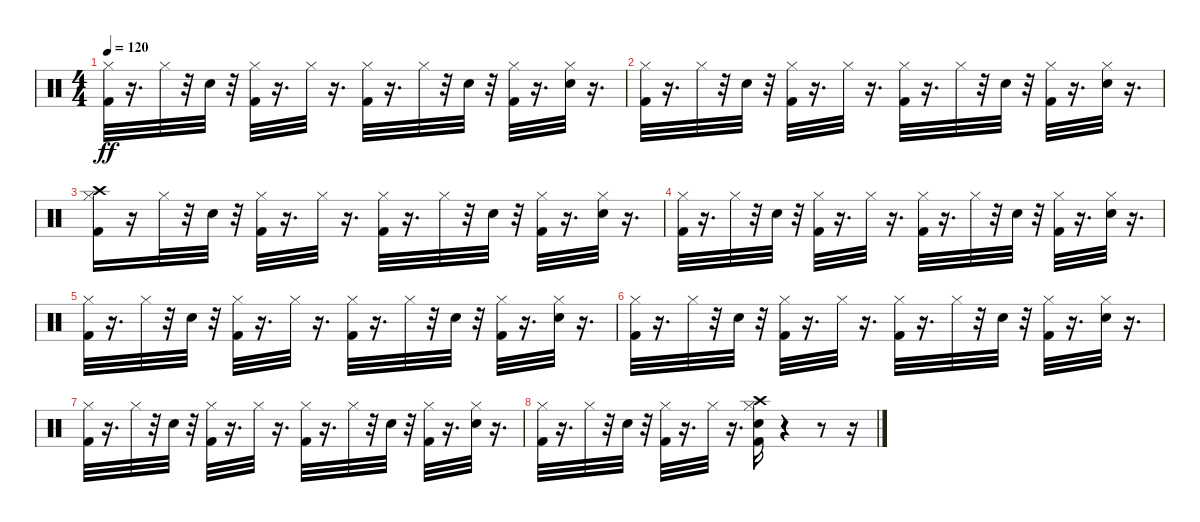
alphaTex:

\track "" {instrument percussion}
\staff {score}
\articulation defaults
\ts (4 4)
\tempo 120
\clef neutral
\ks c
("Kick (hit) 2" "Hi-Hat (closed)").32{dy ff} r.16{d} "Hi-Hat (closed)".32 r.32 "Snare (hit) 2".32 r.32 ("Kick (hit) 2" "Hi-Hat (closed)").32 r.16{d} "Hi-Hat (closed)".32 r.16{d} ("Kick (hit) 2" "Hi-Hat (closed)").32 r.16{d} "Hi-Hat (closed)".32 r.32 "Snare (hit) 2".32 r.32 ("Kick (hit) 2" "Hi-Hat (closed)").32 r.16{d} ("Snare (hit) 2" "Hi-Hat (closed)").32 r.16{d} |
("Kick (hit) 2" "Hi-Hat (closed)").32 r.16{d} "Hi-Hat (closed)".32 r.32 "Snare (hit) 2".32 r.32 ("Kick (hit) 2" "Hi-Hat (closed)").32 r.16{d} "Hi-Hat (closed)".32 r.16{d} ("Kick (hit) 2" "Hi-Hat (closed)").32 r.16{d} "Hi-Hat (closed)".32 r.32 "Snare (hit) 2".32 r.32 ("Kick (hit) 2" "Hi-Hat (closed)").32 r.16{d} ("Snare (hit) 2" "Hi-Hat (closed)").32 r.16{d} |
("Kick (hit) 2" "Hi-Hat (closed)" "Crash high (hit)").16 r.16 "Hi-Hat (closed)".32 r.32 "Snare (hit) 2".32 r.32 ("Kick (hit) 2" "Hi-Hat (closed)").32 r.16{d} "Hi-Hat (closed)".32 r.16{d} ("Kick (hit) 2" "Hi-Hat (closed)").32 r.16{d} "Hi-Hat (closed)".32 r.32 "Snare (hit) 2".32 r.32 ("Kick (hit) 2" "Hi-Hat (closed)").32 r.16{d} ("Snare (hit) 2" "Hi-Hat (closed)").32 r.16{d} |
("Kick (hit) 2" "Hi-Hat (closed)").32 r.16{d} "Hi-Hat (closed)".32 r.32 "Snare (hit) 2".32 r.32 ("Kick (hit) 2" "Hi-Hat (closed)").32 r.16{d} "Hi-Hat (closed)".32 r.16{d} ("Kick (hit) 2" "Hi-Hat (closed)").32 r.16{d} "Hi-Hat (closed)".32 r.32 "Snare (hit) 2".32 r.32 ("Kick (hit) 2" "Hi-Hat (closed)").32 r.16{d} ("Snare (hit) 2" "Hi-Hat (closed)").32 r.16{d} |
("Kick (hit) 2" "Hi-Hat (closed)").32 r.16{d} "Hi-Hat (closed)".32 r.32 "Snare (hit) 2".32 r.32 ("Kick (hit) 2" "Hi-Hat (closed)").32 r.16{d} "Hi-Hat (closed)".32 r.16{d} ("Kick (hit) 2" "Hi-Hat (closed)").32 r.16{d} "Hi-Hat (closed)".32 r.32 "Snare (hit) 2".32 r.32 ("Kick (hit) 2" "Hi-Hat (closed)").32 r.16{d} ("Snare (hit) 2" "Hi-Hat (closed)").32 r.16{d} |
("Kick (hit) 2" "Hi-Hat (closed)").32 r.16{d} "Hi-Hat (closed)".32 r.32 "Snare (hit) 2".32 r.32 ("Kick (hit) 2" "Hi-Hat (closed)").32 r.16{d} "Hi-Hat (closed)".32 r.16{d} ("Kick (hit) 2" "Hi-Hat (closed)").32 r.16{d} "Hi-Hat (closed)".32 r.32 "Snare (hit) 2".32 r.32 ("Kick (hit) 2" "Hi-Hat (closed)").32 r.16{d} ("Snare (hit) 2" "Hi-Hat (closed)").32 r.16{d} |
("Kick (hit) 2" "Hi-Hat (closed)").32 r.16{d} "Hi-Hat (closed)".32 r.32 "Snare (hit) 2".32 r.32 ("Kick (hit) 2" "Hi-Hat (closed)").32 r.16{d} "Hi-Hat (closed)".32 r.16{d} ("Kick (hit) 2" "Hi-Hat (closed)").32 r.16{d} "Hi-Hat (closed)".32 r.32 "Snare (hit) 2".32 r.32 ("Kick (hit) 2" "Hi-Hat (closed)").32 r.16{d} ("Snare (hit) 2" "Hi-Hat (closed)").32 r.16{d} |
("Kick (hit) 2" "Hi-Hat (closed)").32 r.16{d} "Hi-Hat (closed)".32 r.32 "Snare (hit) 2".32 r.32 ("Kick (hit) 2" "Hi-Hat (closed)").32 r.16{d} "Hi-Hat (closed)".32 r.16{d} ("Snare (hit) 2" "Kick (hit) 2" "Hi-Hat (closed)" "Crash high (hit)").16 r.4 r.8 r.16
